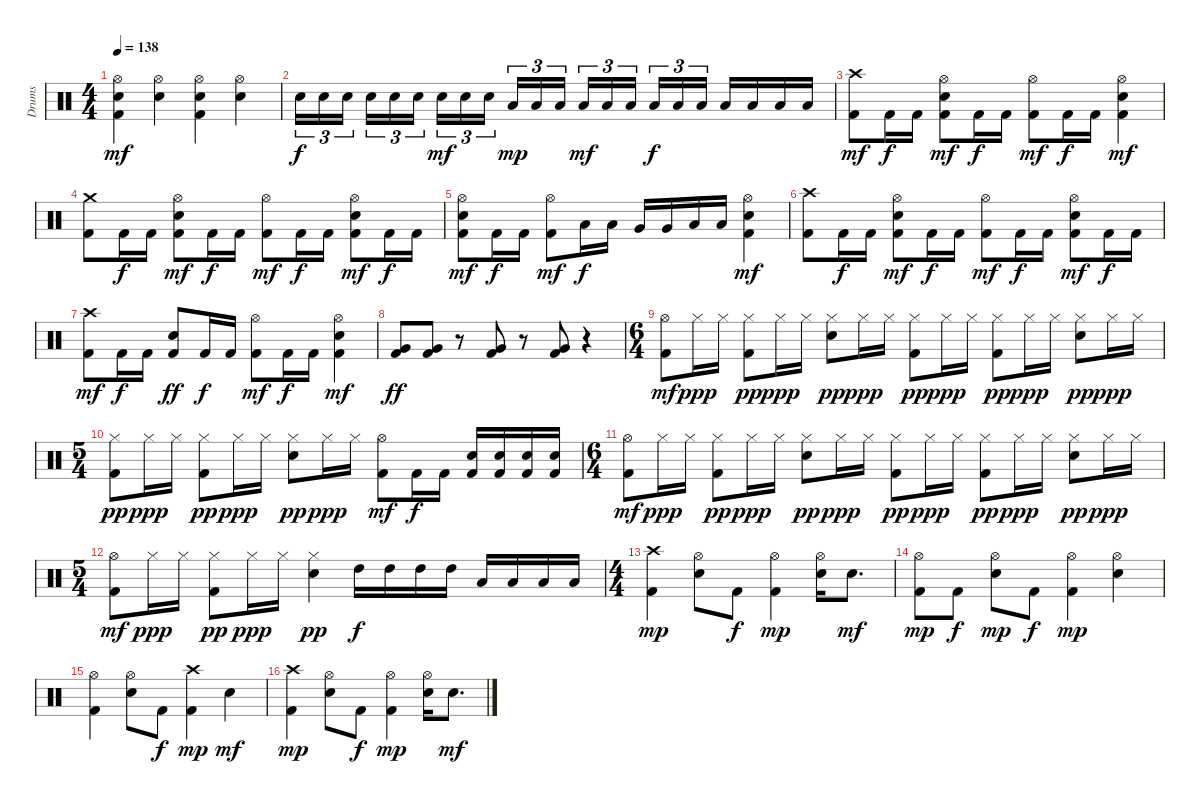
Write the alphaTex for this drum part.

\track ("Drums" "Drums") {instrument percussion}
\staff {score}
\articulation defaults
\ts (4 4)
\tempo 138
\clef neutral
\ks c
("Kick (hit) 2" "Electric Snare (hit)" "Hi-Hat (open)").4{dy mf} ("Electric Snare (hit)" "Hi-Hat (open)").4 ("Kick (hit) 2" "Electric Snare (hit)" "Hi-Hat (open)").4 ("Electric Snare (hit)" "Hi-Hat (open)").4 |
"Electric Snare (hit)".16{tu (3 2) dy f} "Electric Snare (hit)".16{tu (3 2)} "Electric Snare (hit)".16{tu (3 2) beam splitsecondary} "Electric Snare (hit)".16{tu (3 2)} "Electric Snare (hit)".16{tu (3 2)} "Electric Snare (hit)".16{tu (3 2)} "Electric Snare (hit)".16{tu (3 2) dy mf} "Electric Snare (hit)".16{tu (3 2)} "Electric Snare (hit)".16{tu (3 2) beam splitsecondary} "Low Tom (hit)".16{tu (3 2) dy mp} "Low Tom (hit)".16{tu (3 2)} "Low Tom (hit)".16{tu (3 2)} "Low Tom (hit)".16{tu (3 2) dy mf} "Low Tom (hit)".16{tu (3 2)} "Low Tom (hit)".16{tu (3 2) beam splitsecondary} "Low Tom (hit)".16{tu (3 2) dy f} "Low Tom (hit)".16{tu (3 2)} "Low Tom (hit)".16{tu (3 2)} "Low Tom (hit)".16 "Low Tom (hit)".16 "Low Tom (hit)".16 "Low Tom (hit)".16 |
("Kick (hit) 2" "Crash high (hit)").8{dy mf} "Kick (hit) 2".16{dy f} "Kick (hit) 2".16 ("Kick (hit) 2" "Electric Snare (hit)" "Hi-Hat (open)").8{dy mf} "Kick (hit) 2".16{dy f} "Kick (hit) 2".16 ("Kick (hit) 2" "Hi-Hat (open)").8{dy mf} "Kick (hit) 2".16{dy f} "Kick (hit) 2".16 ("Kick (hit) 2" "Electric Snare (hit)" "Hi-Hat (open)").4{dy mf} |
("Kick (hit) 2" "Crash medium (hit)").8 "Kick (hit) 2".16{dy f} "Kick (hit) 2".16 ("Kick (hit) 2" "Electric Snare (hit)" "Hi-Hat (open)").8{dy mf} "Kick (hit) 2".16{dy f} "Kick (hit) 2".16 ("Kick (hit) 2" "Hi-Hat (open)").8{dy mf} "Kick (hit) 2".16{dy f} "Kick (hit) 2".16 ("Kick (hit) 2" "Electric Snare (hit)" "Hi-Hat (open)").8{dy mf} "Kick (hit) 2".16{dy f} "Kick (hit) 2".16 |
("Kick (hit) 2" "Electric Snare (hit)" "Hi-Hat (open)").8{dy mf} "Kick (hit) 2".16{dy f} "Kick (hit) 2".16 ("Kick (hit) 2" "Hi-Hat (open)").8{dy mf} "Low Tom (hit)".16{dy f} "Low Tom (hit)".16 "Very Low Tom (hit)".16 "Very Low Tom (hit)".16 "Low Floor Tom (hit)".16 "Low Floor Tom (hit)".16 ("Kick (hit) 2" "Electric Snare (hit)" "Hi-Hat (open)").4{dy mf} |
("Kick (hit) 2" "Crash high (hit)").8 "Kick (hit) 2".16{dy f} "Kick (hit) 2".16 ("Kick (hit) 2" "Electric Snare (hit)" "Hi-Hat (open)").8{dy mf} "Kick (hit) 2".16{dy f} "Kick (hit) 2".16 ("Kick (hit) 2" "Hi-Hat (open)").8{dy mf} "Kick (hit) 2".16{dy f} "Kick (hit) 2".16 ("Kick (hit) 2" "Electric Snare (hit)" "Hi-Hat (open)").8{dy mf} "Kick (hit) 2".16{dy f} "Kick (hit) 2".16 |
("Kick (hit) 2" "Crash high (hit)").8{dy mf} "Kick (hit) 2".16{dy f} "Kick (hit) 2".16 ("Kick (hit) 2" "Electric Snare (hit)").8{dy ff} "Kick (hit) 2".16{dy f} "Kick (hit) 2".16 ("Kick (hit) 2" "Hi-Hat (open)").8{dy mf} "Kick (hit) 2".16{dy f} "Kick (hit) 2".16 ("Kick (hit) 2" "Electric Snare (hit)" "Hi-Hat (open)").4{dy mf} |
("Kick (hit) 2" "Very Low Tom (hit)").8{dy ff} ("Kick (hit) 2" "Very Low Tom (hit)").8 r.8 ("Kick (hit) 2" "Very Low Tom (hit)").8 r.8 ("Kick (hit) 2" "Very Low Tom (hit)").8 r.4 |
\ts (6 4)
("Kick (hit) 2" "Hi-Hat (open)").8{dy mf} "Hi-Hat (closed)".16{dy ppp} "Hi-Hat (closed)".16 ("Kick (hit) 2" "Hi-Hat (closed)").8{dy pp} "Hi-Hat (closed)".16{dy ppp} "Hi-Hat (closed)".16 ("Electric Snare (hit)" "Hi-Hat (closed)").8{dy pp} "Hi-Hat (closed)".16{dy ppp} "Hi-Hat (closed)".16 ("Kick (hit) 2" "Hi-Hat (closed)").8{dy pp} "Hi-Hat (closed)".16{dy ppp} "Hi-Hat (closed)".16 ("Kick (hit) 2" "Hi-Hat (closed)").8{dy pp} "Hi-Hat (closed)".16{dy ppp} "Hi-Hat (closed)".16 ("Electric Snare (hit)" "Hi-Hat (closed)").8{dy pp} "Hi-Hat (closed)".16{dy ppp} "Hi-Hat (closed)".16 |
\ts (5 4)
("Kick (hit) 2" "Hi-Hat (closed)").8{dy pp} "Hi-Hat (closed)".16{dy ppp} "Hi-Hat (closed)".16 ("Kick (hit) 2" "Hi-Hat (closed)").8{dy pp} "Hi-Hat (closed)".16{dy ppp} "Hi-Hat (closed)".16 ("Electric Snare (hit)" "Hi-Hat (closed)").8{dy pp} "Hi-Hat (closed)".16{dy ppp} "Hi-Hat (closed)".16 ("Kick (hit) 2" "Hi-Hat (open)").8{dy mf} "Kick (hit) 2".16{dy f} "Kick (hit) 2".16 ("Kick (hit) 2" "Electric Snare (hit)").16 ("Kick (hit) 2" "Electric Snare (hit)").16 ("Kick (hit) 2" "Electric Snare (hit)").16 ("Kick (hit) 2" "Electric Snare (hit)").16 |
\ts (6 4)
("Kick (hit) 2" "Hi-Hat (open)").8{dy mf} "Hi-Hat (closed)".16{dy ppp} "Hi-Hat (closed)".16 ("Kick (hit) 2" "Hi-Hat (closed)").8{dy pp} "Hi-Hat (closed)".16{dy ppp} "Hi-Hat (closed)".16 ("Electric Snare (hit)" "Hi-Hat (closed)").8{dy pp} "Hi-Hat (closed)".16{dy ppp} "Hi-Hat (closed)".16 ("Kick (hit) 2" "Hi-Hat (closed)").8{dy pp} "Hi-Hat (closed)".16{dy ppp} "Hi-Hat (closed)".16 ("Kick (hit) 2" "Hi-Hat (closed)").8{dy pp} "Hi-Hat (closed)".16{dy ppp} "Hi-Hat (closed)".16 ("Electric Snare (hit)" "Hi-Hat (closed)").8{dy pp} "Hi-Hat (closed)".16{dy ppp} "Hi-Hat (closed)".16 |
\ts (5 4)
("Kick (hit) 2" "Hi-Hat (open)").8{dy mf} "Hi-Hat (closed)".16{dy ppp} "Hi-Hat (closed)".16 ("Kick (hit) 2" "Hi-Hat (closed)").8{dy pp} "Hi-Hat (closed)".16{dy ppp} "Hi-Hat (closed)".16 ("Electric Snare (hit)" "Hi-Hat (closed)").4{dy pp} "High Tom (hit)".16{dy f} "High Tom (hit)".16 "High Tom (hit)".16 "High Tom (hit)".16 "Low Tom (hit)".16 "Low Tom (hit)".16 "Low Tom (hit)".16 "Low Tom (hit)".16 |
\ts (4 4)
("Kick (hit) 2" "Crash high (hit)").4{dy mp} ("Electric Snare (hit)" "Hi-Hat (open)").8 "Kick (hit) 2".8{dy f} ("Kick (hit) 2" "Hi-Hat (open)").4{dy mp} ("Electric Snare (hit)" "Hi-Hat (open)").16 "Electric Snare (hit)".8{d dy mf} |
("Kick (hit) 2" "Hi-Hat (open)").8{dy mp} "Kick (hit) 2".8{dy f} ("Electric Snare (hit)" "Hi-Hat (open)").8{dy mp} "Kick (hit) 2".8{dy f} ("Kick (hit) 2" "Hi-Hat (open)").4{dy mp} ("Electric Snare (hit)" "Hi-Hat (open)").4 |
("Kick (hit) 2" "Hi-Hat (open)").4 ("Electric Snare (hit)" "Hi-Hat (open)").8 "Kick (hit) 2".8{dy f} ("Kick (hit) 2" "Crash high (hit)").4{dy mp} "Electric Snare (hit)".4{dy mf} |
("Kick (hit) 2" "Crash high (hit)").4{dy mp} ("Electric Snare (hit)" "Hi-Hat (open)").8 "Kick (hit) 2".8{dy f} ("Kick (hit) 2" "Hi-Hat (open)").4{dy mp} ("Electric Snare (hit)" "Hi-Hat (open)").16 "Electric Snare (hit)".8{d dy mf}
